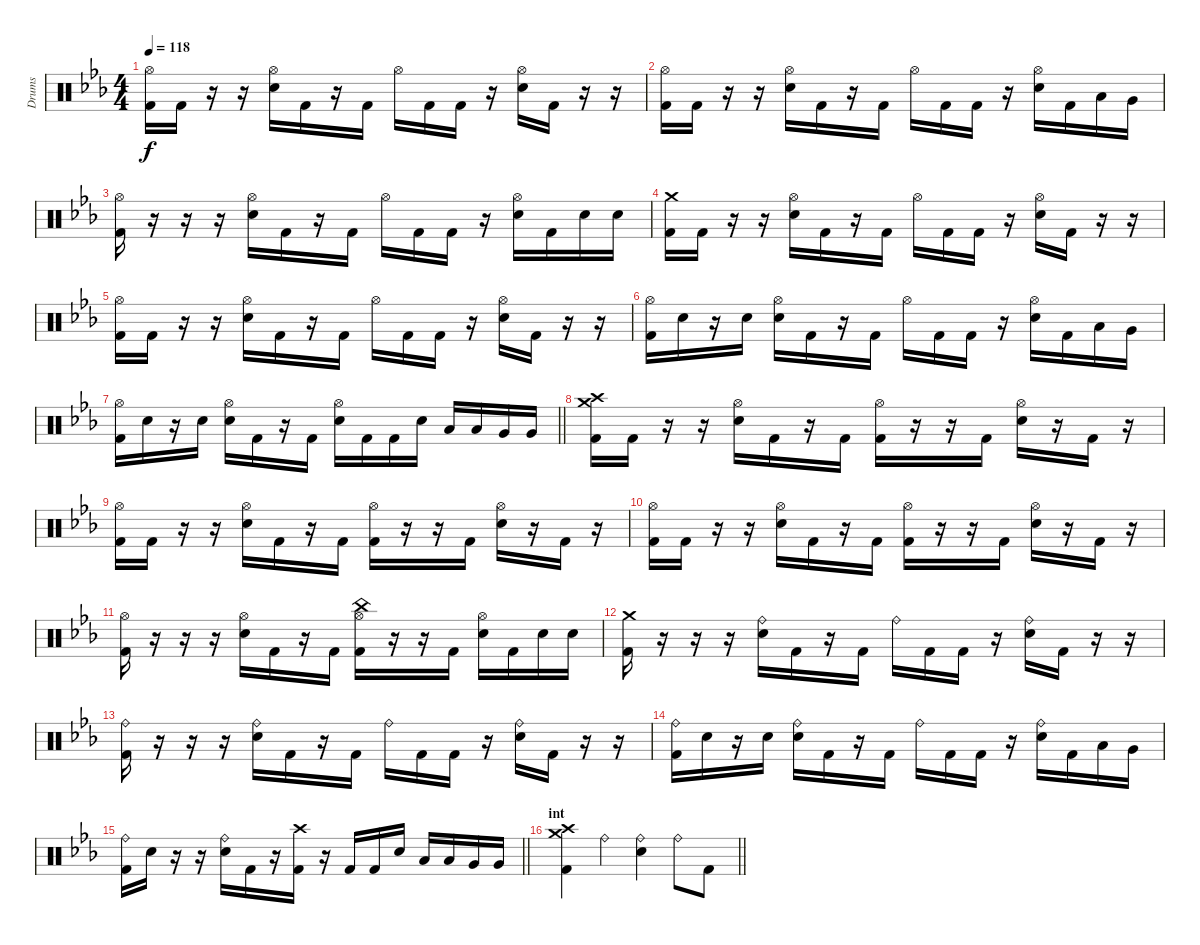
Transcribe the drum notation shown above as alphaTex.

\track ("Drums" "Drums") {instrument percussion}
\staff {score}
\articulation defaults
\ts (4 4)
\tempo 118
\clef neutral
\ks cminor
("Kick (hit) 2" "Hi-Hat (open)").16{dy f} "Kick (hit) 2".16 r.16 r.16 ("Hi-Hat (open)" "Electric Snare (hit)").16 "Kick (hit) 2".16 r.16 "Kick (hit) 2".16 "Hi-Hat (open)".16 "Kick (hit) 2".16 "Kick (hit) 2".16 r.16 ("Hi-Hat (open)" "Electric Snare (hit)").16 "Kick (hit) 2".16 r.16 r.16 |
("Kick (hit) 2" "Hi-Hat (open)").16 "Kick (hit) 2".16 r.16 r.16 ("Hi-Hat (open)" "Electric Snare (hit)").16 "Kick (hit) 2".16 r.16 "Kick (hit) 2".16 "Hi-Hat (open)".16 "Kick (hit) 2".16 "Kick (hit) 2".16 r.16 ("Hi-Hat (open)" "Electric Snare (hit)").16 "Kick (hit) 2".16 "Low Tom (hit)".16 "Very Low Tom (hit)".16 |
("Kick (hit) 2" "Hi-Hat (open)").16 r.16 r.16 r.16 ("Hi-Hat (open)" "Electric Snare (hit)").16 "Kick (hit) 2".16 r.16 "Kick (hit) 2".16 "Hi-Hat (open)".16 "Kick (hit) 2".16 "Kick (hit) 2".16 r.16 ("Hi-Hat (open)" "Electric Snare (hit)").16 "Kick (hit) 2".16 "Electric Snare (hit)".16 "Electric Snare (hit)".16 |
("Kick (hit) 2" "Crash medium (hit)").16 "Kick (hit) 2".16 r.16 r.16 ("Hi-Hat (open)" "Electric Snare (hit)").16 "Kick (hit) 2".16 r.16 "Kick (hit) 2".16 "Hi-Hat (open)".16 "Kick (hit) 2".16 "Kick (hit) 2".16 r.16 ("Hi-Hat (open)" "Electric Snare (hit)").16 "Kick (hit) 2".16 r.16 r.16 |
("Kick (hit) 2" "Hi-Hat (open)").16 "Kick (hit) 2".16 r.16 r.16 ("Hi-Hat (open)" "Electric Snare (hit)").16 "Kick (hit) 2".16 r.16 "Kick (hit) 2".16 "Hi-Hat (open)".16 "Kick (hit) 2".16 "Kick (hit) 2".16 r.16 ("Hi-Hat (open)" "Electric Snare (hit)").16 "Kick (hit) 2".16 r.16 r.16 |
("Kick (hit) 2" "Hi-Hat (open)").16 "Electric Snare (hit)".16 r.16 "Electric Snare (hit)".16 ("Hi-Hat (open)" "Electric Snare (hit)").16 "Kick (hit) 2".16 r.16 "Kick (hit) 2".16 "Hi-Hat (open)".16 "Kick (hit) 2".16 "Kick (hit) 2".16 r.16 ("Hi-Hat (open)" "Electric Snare (hit)").16 "Kick (hit) 2".16 "Low Tom (hit)".16 "Very Low Tom (hit)".16 |
\barLineRight lightlight
("Kick (hit) 2" "Hi-Hat (open)").16 "Electric Snare (hit)".16 r.16 "Electric Snare (hit)".16 ("Hi-Hat (open)" "Electric Snare (hit)").16 "Kick (hit) 2".16 r.16 "Kick (hit) 2".16 ("Hi-Hat (open)" "Electric Snare (hit)").16 "Kick (hit) 2".16 "Kick (hit) 2".16 "Electric Snare (hit)".16 "Low Tom (hit)".16 "Low Tom (hit)".16 "Very Low Tom (hit)".16 "Very Low Tom (hit)".16 |
("Kick (hit) 2" "Crash medium (hit)" "Crash high (hit)").16 "Kick (hit) 2".16 r.16 r.16 ("Hi-Hat (open)" "Electric Snare (hit)").16 "Kick (hit) 2".16 r.16 "Kick (hit) 2".16 ("Kick (hit) 2" "Hi-Hat (open)").16 r.16 r.16 "Kick (hit) 2".16 ("Hi-Hat (open)" "Electric Snare (hit)").16 r.16 "Kick (hit) 2".16 r.16 |
("Kick (hit) 2" "Hi-Hat (open)").16 "Kick (hit) 2".16 r.16 r.16 ("Hi-Hat (open)" "Electric Snare (hit)").16 "Kick (hit) 2".16 r.16 "Kick (hit) 2".16 ("Kick (hit) 2" "Hi-Hat (open)").16 r.16 r.16 "Kick (hit) 2".16 ("Hi-Hat (open)" "Electric Snare (hit)").16 r.16 "Kick (hit) 2".16 r.16 |
("Kick (hit) 2" "Hi-Hat (open)").16 "Kick (hit) 2".16 r.16 r.16 ("Hi-Hat (open)" "Electric Snare (hit)").16 "Kick (hit) 2".16 r.16 "Kick (hit) 2".16 ("Kick (hit) 2" "Hi-Hat (open)").16 r.16 r.16 "Kick (hit) 2".16 ("Hi-Hat (open)" "Electric Snare (hit)").16 r.16 "Kick (hit) 2".16 r.16 |
("Kick (hit) 2" "Hi-Hat (open)").16 r.16 r.16 r.16 ("Hi-Hat (open)" "Electric Snare (hit)").16 "Kick (hit) 2".16 r.16 "Kick (hit) 2".16 ("Kick (hit) 2" "Hi-Hat (open)" "China (hit)").16 r.16 r.16 "Kick (hit) 2".16 ("Hi-Hat (open)" "Electric Snare (hit)").16 "Kick (hit) 2".16 "Electric Snare (hit)".16 "Electric Snare (hit)".16 |
("Kick (hit) 2" "Crash medium (hit)").16 r.16 r.16 r.16 ("Ride (bell)" "Electric Snare (hit)").16 "Kick (hit) 2".16 r.16 "Kick (hit) 2".16 "Ride (bell)".16 "Kick (hit) 2".16 "Kick (hit) 2".16 r.16 ("Ride (bell)" "Electric Snare (hit)").16 "Kick (hit) 2".16 r.16 r.16 |
("Kick (hit) 2" "Ride (bell)").16 r.16 r.16 r.16 ("Ride (bell)" "Electric Snare (hit)").16 "Kick (hit) 2".16 r.16 "Kick (hit) 2".16 "Ride (bell)".16 "Kick (hit) 2".16 "Kick (hit) 2".16 r.16 ("Ride (bell)" "Electric Snare (hit)").16 "Kick (hit) 2".16 r.16 r.16 |
("Kick (hit) 2" "Ride (bell)").16 "Electric Snare (hit)".16 r.16 "Electric Snare (hit)".16 ("Ride (bell)" "Electric Snare (hit)").16 "Kick (hit) 2".16 r.16 "Kick (hit) 2".16 "Ride (bell)".16 "Kick (hit) 2".16 "Kick (hit) 2".16 r.16 ("Ride (bell)" "Electric Snare (hit)").16 "Kick (hit) 2".16 "Low Tom (hit)".16 "Very Low Tom (hit)".16 |
\barLineRight lightlight
("Kick (hit) 2" "Ride (bell)").16 "Electric Snare (hit)".16 r.16 r.16 ("Ride (bell)" "Electric Snare (hit)").16 "Kick (hit) 2".16 r.16 ("Kick (hit) 2" "Crash high (hit)").16 r.16 "Kick (hit) 2".16 "Kick (hit) 2".16 "Electric Snare (hit)".16 "Low Tom (hit)".16 "Low Tom (hit)".16 "Very Low Tom (hit)".16 "Very Low Tom (hit)".16 |
\section ("" "int")
\barLineRight lightlight
("Kick (hit) 2" "Crash high (hit)" "Crash medium (hit)").4 "Ride (bell)".4 ("Ride (bell)" "Electric Snare (hit)").4 "Ride (bell)".8 "Kick (hit) 2".8
